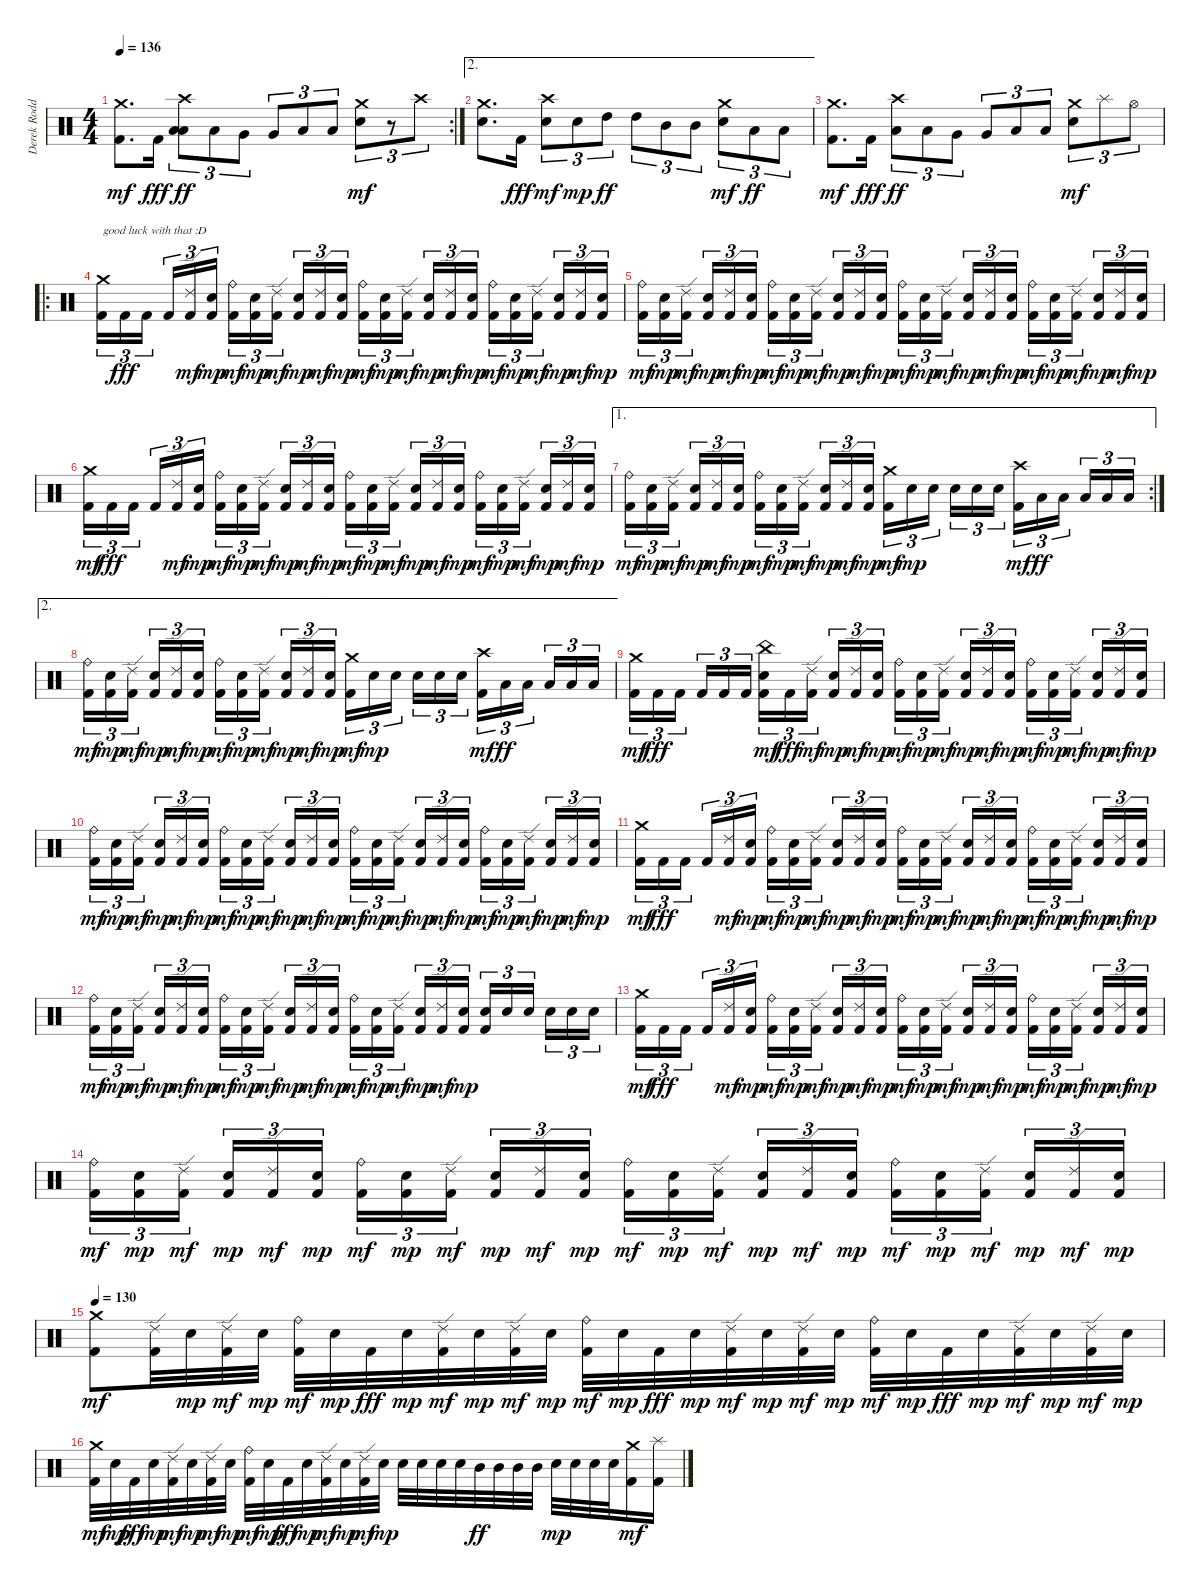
\track ("Derek Roddy" "Derek Rodd") {instrument percussion}
\staff {score}
\articulation defaults
\rc 2
\ts (4 4)
\tempo 136
\clef neutral
\ks c
("Kick (hit) 2" "Crash medium (hit)").8{d dy mf} "Kick (hit) 2".16{dy fff} ("Low Tom (hit)" "Crash high (hit)" "Low Tom (hit)").8{tu (3 2) dy ff} "Low Tom (hit)".8{tu (3 2)} "Very Low Tom (hit)".8{tu (3 2)} "Very Low Tom (hit)".8{tu (3 2)} "Low Floor Tom (hit)".8{tu (3 2)} "Low Floor Tom (hit)".8{tu (3 2)} ("Electric Snare (hit)" "Crash medium (hit)").8{tu (3 2) dy mf} r.8{tu (3 2)} "Crash high (hit)".8{tu (3 2)} |
\ae 2
("Electric Snare (hit)" "Crash medium (hit)").8{d} "Kick (hit) 2".16{dy fff} ("Electric Snare (hit)" "Crash high (hit)").8{tu (3 2) dy mf} "Electric Snare (hit)".8{tu (3 2) dy mp} "High Tom (hit)".8{tu (3 2) dy ff} "High Tom (hit)".8{tu (3 2)} "Mid Tom (hit)".8{tu (3 2)} "Mid Tom (hit)".8{tu (3 2)} ("Electric Snare (hit)" "Crash medium (hit)").8{tu (3 2) dy mf} "Low Tom (hit)".8{tu (3 2) dy ff} "Low Tom (hit)".8{tu (3 2)} |
("Kick (hit) 2" "Crash medium (hit)").8{d dy mf} "Kick (hit) 2".16{dy fff} ("Crash high (hit)" "Low Tom (hit)").8{tu (3 2) dy ff} "Low Tom (hit)".8{tu (3 2)} "Very Low Tom (hit)".8{tu (3 2)} "Very Low Tom (hit)".8{tu (3 2)} "Low Floor Tom (hit)".8{tu (3 2)} "Low Floor Tom (hit)".8{tu (3 2)} ("Electric Snare (hit)" "Crash medium (hit)").8{tu (3 2) dy mf} "Splash (hit)".8{tu (3 2)} "Hi-Hat (open)".8{tu (3 2)} |
\ro
("Kick (hit) 2" "Crash medium (hit)").16{tu (3 2) txt "good luck with that :D"} "Kick (hit) 2".16{tu (3 2) dy fff} "Kick (hit) 2".16{tu (3 2) beam splitsecondary} "Kick (hit) 2".16{tu (3 2)} ("Kick (hit) 2" "Ride (edge) 2").16{tu (3 2) dy mf} ("Kick (hit) 2" "Electric Snare (hit)").16{tu (3 2) dy mp} ("Kick (hit) 2" "Ride (bell)").16{tu (3 2) dy mf} ("Kick (hit) 2" "Electric Snare (hit)").16{tu (3 2) dy mp} ("Kick (hit) 2" "Ride (edge) 2").16{tu (3 2) dy mf beam splitsecondary} ("Kick (hit) 2" "Electric Snare (hit)").16{tu (3 2) dy mp} ("Kick (hit) 2" "Ride (edge) 2").16{tu (3 2) dy mf} ("Kick (hit) 2" "Electric Snare (hit)").16{tu (3 2) dy mp} ("Kick (hit) 2" "Ride (bell)").16{tu (3 2) dy mf} ("Kick (hit) 2" "Electric Snare (hit)").16{tu (3 2) dy mp} ("Kick (hit) 2" "Ride (edge) 2").16{tu (3 2) dy mf beam splitsecondary} ("Kick (hit) 2" "Electric Snare (hit)").16{tu (3 2) dy mp} ("Kick (hit) 2" "Ride (edge) 2").16{tu (3 2) dy mf} ("Kick (hit) 2" "Electric Snare (hit)").16{tu (3 2) dy mp} ("Kick (hit) 2" "Ride (bell)").16{tu (3 2) dy mf} ("Kick (hit) 2" "Electric Snare (hit)").16{tu (3 2) dy mp} ("Kick (hit) 2" "Ride (edge) 2").16{tu (3 2) dy mf beam splitsecondary} ("Kick (hit) 2" "Electric Snare (hit)").16{tu (3 2) dy mp} ("Kick (hit) 2" "Ride (edge) 2").16{tu (3 2) dy mf} ("Kick (hit) 2" "Electric Snare (hit)").16{tu (3 2) dy mp} |
("Kick (hit) 2" "Ride (bell)").16{tu (3 2) dy mf} ("Kick (hit) 2" "Electric Snare (hit)").16{tu (3 2) dy mp} ("Kick (hit) 2" "Ride (edge) 2").16{tu (3 2) dy mf beam splitsecondary} ("Kick (hit) 2" "Electric Snare (hit)").16{tu (3 2) dy mp} ("Kick (hit) 2" "Ride (edge) 2").16{tu (3 2) dy mf} ("Kick (hit) 2" "Electric Snare (hit)").16{tu (3 2) dy mp} ("Kick (hit) 2" "Ride (bell)").16{tu (3 2) dy mf} ("Kick (hit) 2" "Electric Snare (hit)").16{tu (3 2) dy mp} ("Kick (hit) 2" "Ride (edge) 2").16{tu (3 2) dy mf beam splitsecondary} ("Kick (hit) 2" "Electric Snare (hit)").16{tu (3 2) dy mp} ("Kick (hit) 2" "Ride (edge) 2").16{tu (3 2) dy mf} ("Kick (hit) 2" "Electric Snare (hit)").16{tu (3 2) dy mp} ("Kick (hit) 2" "Ride (bell)").16{tu (3 2) dy mf} ("Kick (hit) 2" "Electric Snare (hit)").16{tu (3 2) dy mp} ("Kick (hit) 2" "Ride (edge) 2").16{tu (3 2) dy mf beam splitsecondary} ("Kick (hit) 2" "Electric Snare (hit)").16{tu (3 2) dy mp} ("Kick (hit) 2" "Ride (edge) 2").16{tu (3 2) dy mf} ("Kick (hit) 2" "Electric Snare (hit)").16{tu (3 2) dy mp} ("Kick (hit) 2" "Ride (bell)").16{tu (3 2) dy mf} ("Kick (hit) 2" "Electric Snare (hit)").16{tu (3 2) dy mp} ("Kick (hit) 2" "Ride (edge) 2").16{tu (3 2) dy mf beam splitsecondary} ("Kick (hit) 2" "Electric Snare (hit)").16{tu (3 2) dy mp} ("Kick (hit) 2" "Ride (edge) 2").16{tu (3 2) dy mf} ("Kick (hit) 2" "Electric Snare (hit)").16{tu (3 2) dy mp} |
("Kick (hit) 2" "Crash medium (hit)").16{tu (3 2) dy mf} "Kick (hit) 2".16{tu (3 2) dy fff} "Kick (hit) 2".16{tu (3 2) beam splitsecondary} "Kick (hit) 2".16{tu (3 2)} ("Kick (hit) 2" "Ride (edge) 2").16{tu (3 2) dy mf} ("Kick (hit) 2" "Electric Snare (hit)").16{tu (3 2) dy mp} ("Kick (hit) 2" "Ride (bell)").16{tu (3 2) dy mf} ("Kick (hit) 2" "Electric Snare (hit)").16{tu (3 2) dy mp} ("Kick (hit) 2" "Ride (edge) 2").16{tu (3 2) dy mf beam splitsecondary} ("Kick (hit) 2" "Electric Snare (hit)").16{tu (3 2) dy mp} ("Kick (hit) 2" "Ride (edge) 2").16{tu (3 2) dy mf} ("Kick (hit) 2" "Electric Snare (hit)").16{tu (3 2) dy mp} ("Kick (hit) 2" "Ride (bell)").16{tu (3 2) dy mf} ("Kick (hit) 2" "Electric Snare (hit)").16{tu (3 2) dy mp} ("Kick (hit) 2" "Ride (edge) 2").16{tu (3 2) dy mf beam splitsecondary} ("Kick (hit) 2" "Electric Snare (hit)").16{tu (3 2) dy mp} ("Kick (hit) 2" "Ride (edge) 2").16{tu (3 2) dy mf} ("Kick (hit) 2" "Electric Snare (hit)").16{tu (3 2) dy mp} ("Kick (hit) 2" "Ride (bell)").16{tu (3 2) dy mf} ("Kick (hit) 2" "Electric Snare (hit)").16{tu (3 2) dy mp} ("Kick (hit) 2" "Ride (edge) 2").16{tu (3 2) dy mf beam splitsecondary} ("Kick (hit) 2" "Electric Snare (hit)").16{tu (3 2) dy mp} ("Kick (hit) 2" "Ride (edge) 2").16{tu (3 2) dy mf} ("Kick (hit) 2" "Electric Snare (hit)").16{tu (3 2) dy mp} |
\ae 1
\rc 2
("Kick (hit) 2" "Ride (bell)").16{tu (3 2) dy mf} ("Kick (hit) 2" "Electric Snare (hit)").16{tu (3 2) dy mp} ("Kick (hit) 2" "Ride (edge) 2").16{tu (3 2) dy mf beam splitsecondary} ("Kick (hit) 2" "Electric Snare (hit)").16{tu (3 2) dy mp} ("Kick (hit) 2" "Ride (edge) 2").16{tu (3 2) dy mf} ("Kick (hit) 2" "Electric Snare (hit)").16{tu (3 2) dy mp} ("Kick (hit) 2" "Ride (bell)").16{tu (3 2) dy mf} ("Kick (hit) 2" "Electric Snare (hit)").16{tu (3 2) dy mp} ("Kick (hit) 2" "Ride (edge) 2").16{tu (3 2) dy mf beam splitsecondary} ("Kick (hit) 2" "Electric Snare (hit)").16{tu (3 2) dy mp} ("Kick (hit) 2" "Ride (edge) 2").16{tu (3 2) dy mf} ("Kick (hit) 2" "Electric Snare (hit)").16{tu (3 2) dy mp} ("Kick (hit) 2" "Crash medium (hit)").16{tu (3 2) dy mf} "Electric Snare (hit)".16{tu (3 2) dy mp} "Electric Snare (hit)".16{tu (3 2) beam splitsecondary} "Electric Snare (hit)".16{tu (3 2)} "Electric Snare (hit)".16{tu (3 2)} "Electric Snare (hit)".16{tu (3 2)} ("Kick (hit) 2" "Crash high (hit)").16{tu (3 2) dy mf} "Low Tom (hit)".16{tu (3 2) dy ff} "Low Tom (hit)".16{tu (3 2) beam splitsecondary} "Low Tom (hit)".16{tu (3 2)} "Low Tom (hit)".16{tu (3 2)} "Low Tom (hit)".16{tu (3 2)} |
\ae 2
("Kick (hit) 2" "Ride (bell)").16{tu (3 2) dy mf} ("Kick (hit) 2" "Electric Snare (hit)").16{tu (3 2) dy mp} ("Kick (hit) 2" "Ride (edge) 2").16{tu (3 2) dy mf beam splitsecondary} ("Kick (hit) 2" "Electric Snare (hit)").16{tu (3 2) dy mp} ("Kick (hit) 2" "Ride (edge) 2").16{tu (3 2) dy mf} ("Kick (hit) 2" "Electric Snare (hit)").16{tu (3 2) dy mp} ("Kick (hit) 2" "Ride (bell)").16{tu (3 2) dy mf} ("Kick (hit) 2" "Electric Snare (hit)").16{tu (3 2) dy mp} ("Kick (hit) 2" "Ride (edge) 2").16{tu (3 2) dy mf beam splitsecondary} ("Kick (hit) 2" "Electric Snare (hit)").16{tu (3 2) dy mp} ("Kick (hit) 2" "Ride (edge) 2").16{tu (3 2) dy mf} ("Kick (hit) 2" "Electric Snare (hit)").16{tu (3 2) dy mp} ("Kick (hit) 2" "Crash medium (hit)").16{tu (3 2) dy mf} "Electric Snare (hit)".16{tu (3 2) dy mp} "Electric Snare (hit)".16{tu (3 2) beam splitsecondary} "Electric Snare (hit)".16{tu (3 2)} "Electric Snare (hit)".16{tu (3 2)} "Electric Snare (hit)".16{tu (3 2)} ("Kick (hit) 2" "Crash high (hit)").16{tu (3 2) dy mf} "Low Tom (hit)".16{tu (3 2) dy ff} "Low Tom (hit)".16{tu (3 2) beam splitsecondary} "Low Tom (hit)".16{tu (3 2)} "Low Tom (hit)".16{tu (3 2)} "Low Tom (hit)".16{tu (3 2)} |
("Kick (hit) 2" "Crash medium (hit)").16{tu (3 2) dy mf} "Kick (hit) 2".16{tu (3 2) dy fff} "Kick (hit) 2".16{tu (3 2) beam splitsecondary} "Kick (hit) 2".16{tu (3 2)} "Kick (hit) 2".16{tu (3 2)} "Kick (hit) 2".16{tu (3 2)} ("Kick (hit) 2" "Electric Snare (hit)" "China (hit)").16{tu (3 2) dy mf} "Kick (hit) 2".16{tu (3 2) dy fff} ("Kick (hit) 2" "Ride (edge) 2").16{tu (3 2) dy mf beam splitsecondary} ("Kick (hit) 2" "Electric Snare (hit)").16{tu (3 2) dy mp} ("Kick (hit) 2" "Ride (edge) 2").16{tu (3 2) dy mf} ("Kick (hit) 2" "Electric Snare (hit)").16{tu (3 2) dy mp} ("Kick (hit) 2" "Ride (bell)").16{tu (3 2) dy mf} ("Kick (hit) 2" "Electric Snare (hit)").16{tu (3 2) dy mp} ("Kick (hit) 2" "Ride (edge) 2").16{tu (3 2) dy mf beam splitsecondary} ("Kick (hit) 2" "Electric Snare (hit)").16{tu (3 2) dy mp} ("Kick (hit) 2" "Ride (edge) 2").16{tu (3 2) dy mf} ("Kick (hit) 2" "Electric Snare (hit)").16{tu (3 2) dy mp} ("Kick (hit) 2" "Ride (bell)").16{tu (3 2) dy mf} ("Kick (hit) 2" "Electric Snare (hit)").16{tu (3 2) dy mp} ("Kick (hit) 2" "Ride (edge) 2").16{tu (3 2) dy mf beam splitsecondary} ("Kick (hit) 2" "Electric Snare (hit)").16{tu (3 2) dy mp} ("Kick (hit) 2" "Ride (edge) 2").16{tu (3 2) dy mf} ("Kick (hit) 2" "Electric Snare (hit)").16{tu (3 2) dy mp} |
("Kick (hit) 2" "Ride (bell)").16{tu (3 2) dy mf} ("Kick (hit) 2" "Electric Snare (hit)").16{tu (3 2) dy mp} ("Kick (hit) 2" "Ride (edge) 2").16{tu (3 2) dy mf beam splitsecondary} ("Kick (hit) 2" "Electric Snare (hit)").16{tu (3 2) dy mp} ("Kick (hit) 2" "Ride (edge) 2").16{tu (3 2) dy mf} ("Kick (hit) 2" "Electric Snare (hit)").16{tu (3 2) dy mp} ("Kick (hit) 2" "Ride (bell)").16{tu (3 2) dy mf} ("Kick (hit) 2" "Electric Snare (hit)").16{tu (3 2) dy mp} ("Kick (hit) 2" "Ride (edge) 2").16{tu (3 2) dy mf beam splitsecondary} ("Kick (hit) 2" "Electric Snare (hit)").16{tu (3 2) dy mp} ("Kick (hit) 2" "Ride (edge) 2").16{tu (3 2) dy mf} ("Kick (hit) 2" "Electric Snare (hit)").16{tu (3 2) dy mp} ("Kick (hit) 2" "Ride (bell)").16{tu (3 2) dy mf} ("Kick (hit) 2" "Electric Snare (hit)").16{tu (3 2) dy mp} ("Kick (hit) 2" "Ride (edge) 2").16{tu (3 2) dy mf beam splitsecondary} ("Kick (hit) 2" "Electric Snare (hit)").16{tu (3 2) dy mp} ("Kick (hit) 2" "Ride (edge) 2").16{tu (3 2) dy mf} ("Kick (hit) 2" "Electric Snare (hit)").16{tu (3 2) dy mp} ("Kick (hit) 2" "Ride (bell)").16{tu (3 2) dy mf} ("Kick (hit) 2" "Electric Snare (hit)").16{tu (3 2) dy mp} ("Kick (hit) 2" "Ride (edge) 2").16{tu (3 2) dy mf beam splitsecondary} ("Kick (hit) 2" "Electric Snare (hit)").16{tu (3 2) dy mp} ("Kick (hit) 2" "Ride (edge) 2").16{tu (3 2) dy mf} ("Kick (hit) 2" "Electric Snare (hit)").16{tu (3 2) dy mp} |
("Kick (hit) 2" "Crash medium (hit)").16{tu (3 2) dy mf} "Kick (hit) 2".16{tu (3 2) dy fff} "Kick (hit) 2".16{tu (3 2) beam splitsecondary} "Kick (hit) 2".16{tu (3 2)} ("Kick (hit) 2" "Ride (edge) 2").16{tu (3 2) dy mf} ("Kick (hit) 2" "Electric Snare (hit)").16{tu (3 2) dy mp} ("Kick (hit) 2" "Ride (bell)").16{tu (3 2) dy mf} ("Kick (hit) 2" "Electric Snare (hit)").16{tu (3 2) dy mp} ("Kick (hit) 2" "Ride (edge) 2").16{tu (3 2) dy mf beam splitsecondary} ("Kick (hit) 2" "Electric Snare (hit)").16{tu (3 2) dy mp} ("Kick (hit) 2" "Ride (edge) 2").16{tu (3 2) dy mf} ("Kick (hit) 2" "Electric Snare (hit)").16{tu (3 2) dy mp} ("Kick (hit) 2" "Ride (bell)").16{tu (3 2) dy mf} ("Kick (hit) 2" "Electric Snare (hit)").16{tu (3 2) dy mp} ("Kick (hit) 2" "Ride (edge) 2").16{tu (3 2) dy mf beam splitsecondary} ("Kick (hit) 2" "Electric Snare (hit)").16{tu (3 2) dy mp} ("Kick (hit) 2" "Ride (edge) 2").16{tu (3 2) dy mf} ("Kick (hit) 2" "Electric Snare (hit)").16{tu (3 2) dy mp} ("Kick (hit) 2" "Ride (bell)").16{tu (3 2) dy mf} ("Kick (hit) 2" "Electric Snare (hit)").16{tu (3 2) dy mp} ("Kick (hit) 2" "Ride (edge) 2").16{tu (3 2) dy mf beam splitsecondary} ("Kick (hit) 2" "Electric Snare (hit)").16{tu (3 2) dy mp} ("Kick (hit) 2" "Ride (edge) 2").16{tu (3 2) dy mf} ("Kick (hit) 2" "Electric Snare (hit)").16{tu (3 2) dy mp} |
("Kick (hit) 2" "Ride (bell)").16{tu (3 2) dy mf} ("Kick (hit) 2" "Electric Snare (hit)").16{tu (3 2) dy mp} ("Kick (hit) 2" "Ride (edge) 2").16{tu (3 2) dy mf beam splitsecondary} ("Kick (hit) 2" "Electric Snare (hit)").16{tu (3 2) dy mp} ("Kick (hit) 2" "Ride (edge) 2").16{tu (3 2) dy mf} ("Kick (hit) 2" "Electric Snare (hit)").16{tu (3 2) dy mp} ("Kick (hit) 2" "Ride (bell)").16{tu (3 2) dy mf} ("Kick (hit) 2" "Electric Snare (hit)").16{tu (3 2) dy mp} ("Kick (hit) 2" "Ride (edge) 2").16{tu (3 2) dy mf beam splitsecondary} ("Kick (hit) 2" "Electric Snare (hit)").16{tu (3 2) dy mp} ("Kick (hit) 2" "Ride (edge) 2").16{tu (3 2) dy mf} ("Kick (hit) 2" "Electric Snare (hit)").16{tu (3 2) dy mp} ("Kick (hit) 2" "Ride (bell)").16{tu (3 2) dy mf} ("Kick (hit) 2" "Electric Snare (hit)").16{tu (3 2) dy mp} ("Kick (hit) 2" "Ride (edge) 2").16{tu (3 2) dy mf beam splitsecondary} ("Kick (hit) 2" "Electric Snare (hit)").16{tu (3 2) dy mp} ("Kick (hit) 2" "Ride (edge) 2").16{tu (3 2) dy mf} ("Kick (hit) 2" "Electric Snare (hit)").16{tu (3 2) dy mp} ("Kick (hit) 2" "Electric Snare (hit)").16{tu (3 2)} "Electric Snare (hit)".16{tu (3 2)} "Electric Snare (hit)".16{tu (3 2) beam splitsecondary} "Electric Snare (hit)".16{tu (3 2)} "Electric Snare (hit)".16{tu (3 2)} "Electric Snare (hit)".16{tu (3 2)} |
("Kick (hit) 2" "Crash medium (hit)").16{tu (3 2) dy mf} "Kick (hit) 2".16{tu (3 2) dy fff} "Kick (hit) 2".16{tu (3 2) beam splitsecondary} "Kick (hit) 2".16{tu (3 2)} ("Kick (hit) 2" "Ride (edge) 2").16{tu (3 2) dy mf} ("Kick (hit) 2" "Electric Snare (hit)").16{tu (3 2) dy mp} ("Kick (hit) 2" "Ride (bell)").16{tu (3 2) dy mf} ("Kick (hit) 2" "Electric Snare (hit)").16{tu (3 2) dy mp} ("Kick (hit) 2" "Ride (edge) 2").16{tu (3 2) dy mf beam splitsecondary} ("Kick (hit) 2" "Electric Snare (hit)").16{tu (3 2) dy mp} ("Kick (hit) 2" "Ride (edge) 2").16{tu (3 2) dy mf} ("Kick (hit) 2" "Electric Snare (hit)").16{tu (3 2) dy mp} ("Kick (hit) 2" "Ride (bell)").16{tu (3 2) dy mf} ("Kick (hit) 2" "Electric Snare (hit)").16{tu (3 2) dy mp} ("Kick (hit) 2" "Ride (edge) 2").16{tu (3 2) dy mf beam splitsecondary} ("Kick (hit) 2" "Electric Snare (hit)").16{tu (3 2) dy mp} ("Kick (hit) 2" "Ride (edge) 2").16{tu (3 2) dy mf} ("Kick (hit) 2" "Electric Snare (hit)").16{tu (3 2) dy mp} ("Kick (hit) 2" "Ride (bell)").16{tu (3 2) dy mf} ("Kick (hit) 2" "Electric Snare (hit)").16{tu (3 2) dy mp} ("Kick (hit) 2" "Ride (edge) 2").16{tu (3 2) dy mf beam splitsecondary} ("Kick (hit) 2" "Electric Snare (hit)").16{tu (3 2) dy mp} ("Kick (hit) 2" "Ride (edge) 2").16{tu (3 2) dy mf} ("Kick (hit) 2" "Electric Snare (hit)").16{tu (3 2) dy mp} |
("Kick (hit) 2" "Ride (bell)").16{tu (3 2) dy mf} ("Kick (hit) 2" "Electric Snare (hit)").16{tu (3 2) dy mp} ("Kick (hit) 2" "Ride (edge) 2").16{tu (3 2) dy mf beam splitsecondary} ("Kick (hit) 2" "Electric Snare (hit)").16{tu (3 2) dy mp} ("Kick (hit) 2" "Ride (edge) 2").16{tu (3 2) dy mf} ("Kick (hit) 2" "Electric Snare (hit)").16{tu (3 2) dy mp} ("Kick (hit) 2" "Ride (bell)").16{tu (3 2) dy mf} ("Kick (hit) 2" "Electric Snare (hit)").16{tu (3 2) dy mp} ("Kick (hit) 2" "Ride (edge) 2").16{tu (3 2) dy mf beam splitsecondary} ("Kick (hit) 2" "Electric Snare (hit)").16{tu (3 2) dy mp} ("Kick (hit) 2" "Ride (edge) 2").16{tu (3 2) dy mf} ("Kick (hit) 2" "Electric Snare (hit)").16{tu (3 2) dy mp} ("Kick (hit) 2" "Ride (bell)").16{tu (3 2) dy mf} ("Kick (hit) 2" "Electric Snare (hit)").16{tu (3 2) dy mp} ("Kick (hit) 2" "Ride (edge) 2").16{tu (3 2) dy mf beam splitsecondary} ("Kick (hit) 2" "Electric Snare (hit)").16{tu (3 2) dy mp} ("Kick (hit) 2" "Ride (edge) 2").16{tu (3 2) dy mf} ("Kick (hit) 2" "Electric Snare (hit)").16{tu (3 2) dy mp} ("Kick (hit) 2" "Ride (bell)").16{tu (3 2) dy mf} ("Kick (hit) 2" "Electric Snare (hit)").16{tu (3 2) dy mp} ("Kick (hit) 2" "Ride (edge) 2").16{tu (3 2) dy mf beam splitsecondary} ("Kick (hit) 2" "Electric Snare (hit)").16{tu (3 2) dy mp} ("Kick (hit) 2" "Ride (edge) 2").16{tu (3 2) dy mf} ("Kick (hit) 2" "Electric Snare (hit)").16{tu (3 2) dy mp} |
\tempo 130
("Kick (hit) 2" "Crash medium (hit)").8{dy mf} ("Kick (hit) 2" "Ride (edge) 2").32 "Electric Snare (hit)".32{dy mp} ("Kick (hit) 2" "Ride (edge) 2").32{dy mf} "Electric Snare (hit)".32{dy mp} ("Kick (hit) 2" "Ride (bell)").32{dy mf} "Electric Snare (hit)".32{dy mp} "Kick (hit) 2".32{dy fff} "Electric Snare (hit)".32{dy mp} ("Kick (hit) 2" "Ride (edge) 2").32{dy mf} "Electric Snare (hit)".32{dy mp} ("Kick (hit) 2" "Ride (edge) 2").32{dy mf} "Electric Snare (hit)".32{dy mp} ("Kick (hit) 2" "Ride (bell)").32{dy mf} "Electric Snare (hit)".32{dy mp} "Kick (hit) 2".32{dy fff} "Electric Snare (hit)".32{dy mp} ("Kick (hit) 2" "Ride (edge) 2").32{dy mf} "Electric Snare (hit)".32{dy mp} ("Kick (hit) 2" "Ride (edge) 2").32{dy mf} "Electric Snare (hit)".32{dy mp} ("Kick (hit) 2" "Ride (bell)").32{dy mf} "Electric Snare (hit)".32{dy mp} "Kick (hit) 2".32{dy fff} "Electric Snare (hit)".32{dy mp} ("Kick (hit) 2" "Ride (edge) 2").32{dy mf} "Electric Snare (hit)".32{dy mp} ("Kick (hit) 2" "Ride (edge) 2").32{dy mf} "Electric Snare (hit)".32{dy mp} |
("Kick (hit) 2" "Crash medium (hit)").32{dy mf} "Electric Snare (hit)".32{dy mp} "Kick (hit) 2".32{dy fff} "Electric Snare (hit)".32{dy mp} ("Kick (hit) 2" "Ride (edge) 2").32{dy mf} "Electric Snare (hit)".32{dy mp} ("Kick (hit) 2" "Ride (edge) 2").32{dy mf} "Electric Snare (hit)".32{dy mp} ("Kick (hit) 2" "Ride (bell)").32{dy mf} "Electric Snare (hit)".32{dy mp} "Kick (hit) 2".32{dy fff} "Electric Snare (hit)".32{dy mp} ("Kick (hit) 2" "Ride (edge) 2").32{dy mf} "Electric Snare (hit)".32{dy mp} ("Kick (hit) 2" "Ride (edge) 2").32{dy mf} "Electric Snare (hit)".32{dy mp} "Electric Snare (hit)".32 "Electric Snare (hit)".32 "Electric Snare (hit)".32 "Electric Snare (hit)".32 "Mid Tom (hit)".32{dy ff} "Mid Tom (hit)".32 "Mid Tom (hit)".32 "Mid Tom (hit)".32 "Electric Snare (hit)".32{dy mp} "Electric Snare (hit)".32 "Electric Snare (hit)".32 "Electric Snare (hit)".32 ("Kick (hit) 2" "Crash medium (hit)").16{dy mf} ("Kick (hit) 2" "Splash (hit)").16
